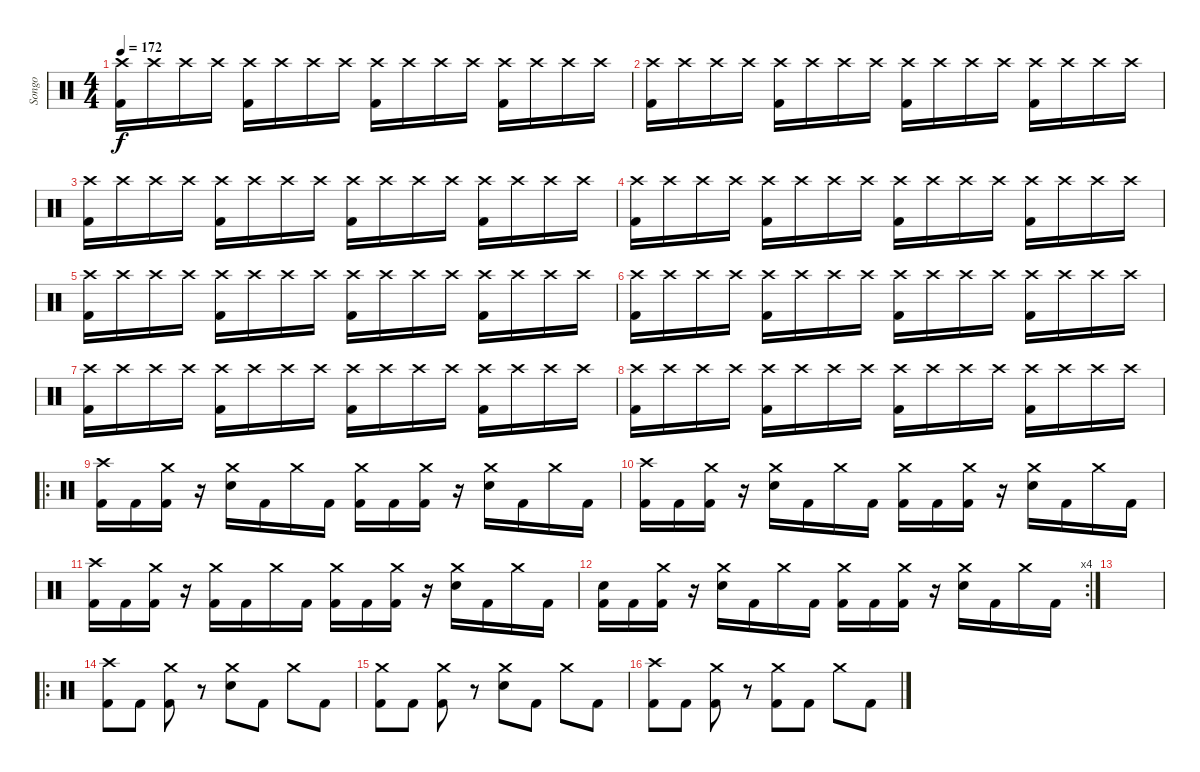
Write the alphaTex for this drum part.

\track ("Songo" "Songo") {instrument percussion}
\staff {score}
\articulation defaults
\ts (4 4)
\tempo 172
\clef neutral
\ks c
("Crash high (hit)" "Kick (hit) 2").16{dy f} "Crash high (hit)".16 "Crash high (hit)".16 "Crash high (hit)".16 ("Crash high (hit)" "Kick (hit) 2").16 "Crash high (hit)".16 "Crash high (hit)".16 "Crash high (hit)".16 ("Crash high (hit)" "Kick (hit) 2").16 "Crash high (hit)".16 "Crash high (hit)".16 "Crash high (hit)".16 ("Crash high (hit)" "Kick (hit) 2").16 "Crash high (hit)".16 "Crash high (hit)".16 "Crash high (hit)".16 |
("Crash high (hit)" "Kick (hit) 2").16 "Crash high (hit)".16 "Crash high (hit)".16 "Crash high (hit)".16 ("Crash high (hit)" "Kick (hit) 2").16 "Crash high (hit)".16 "Crash high (hit)".16 "Crash high (hit)".16 ("Crash high (hit)" "Kick (hit) 2").16 "Crash high (hit)".16 "Crash high (hit)".16 "Crash high (hit)".16 ("Crash high (hit)" "Kick (hit) 2").16 "Crash high (hit)".16 "Crash high (hit)".16 "Crash high (hit)".16 |
("Crash high (hit)" "Kick (hit) 2").16 "Crash high (hit)".16 "Crash high (hit)".16 "Crash high (hit)".16 ("Crash high (hit)" "Kick (hit) 2").16 "Crash high (hit)".16 "Crash high (hit)".16 "Crash high (hit)".16 ("Crash high (hit)" "Kick (hit) 2").16 "Crash high (hit)".16 "Crash high (hit)".16 "Crash high (hit)".16 ("Crash high (hit)" "Kick (hit) 2").16 "Crash high (hit)".16 "Crash high (hit)".16 "Crash high (hit)".16 |
("Crash high (hit)" "Kick (hit) 2").16 "Crash high (hit)".16 "Crash high (hit)".16 "Crash high (hit)".16 ("Crash high (hit)" "Kick (hit) 2").16 "Crash high (hit)".16 "Crash high (hit)".16 "Crash high (hit)".16 ("Crash high (hit)" "Kick (hit) 2").16 "Crash high (hit)".16 "Crash high (hit)".16 "Crash high (hit)".16 ("Crash high (hit)" "Kick (hit) 2").16 "Crash high (hit)".16 "Crash high (hit)".16 "Crash high (hit)".16 |
("Crash high (hit)" "Kick (hit) 2").16 "Crash high (hit)".16 "Crash high (hit)".16 "Crash high (hit)".16 ("Crash high (hit)" "Kick (hit) 2").16 "Crash high (hit)".16 "Crash high (hit)".16 "Crash high (hit)".16 ("Crash high (hit)" "Kick (hit) 2").16 "Crash high (hit)".16 "Crash high (hit)".16 "Crash high (hit)".16 ("Crash high (hit)" "Kick (hit) 2").16 "Crash high (hit)".16 "Crash high (hit)".16 "Crash high (hit)".16 |
("Crash high (hit)" "Kick (hit) 2").16 "Crash high (hit)".16 "Crash high (hit)".16 "Crash high (hit)".16 ("Crash high (hit)" "Kick (hit) 2").16 "Crash high (hit)".16 "Crash high (hit)".16 "Crash high (hit)".16 ("Crash high (hit)" "Kick (hit) 2").16 "Crash high (hit)".16 "Crash high (hit)".16 "Crash high (hit)".16 ("Crash high (hit)" "Kick (hit) 2").16 "Crash high (hit)".16 "Crash high (hit)".16 "Crash high (hit)".16 |
("Crash high (hit)" "Kick (hit) 2").16 "Crash high (hit)".16 "Crash high (hit)".16 "Crash high (hit)".16 ("Crash high (hit)" "Kick (hit) 2").16 "Crash high (hit)".16 "Crash high (hit)".16 "Crash high (hit)".16 ("Crash high (hit)" "Kick (hit) 2").16 "Crash high (hit)".16 "Crash high (hit)".16 "Crash high (hit)".16 ("Crash high (hit)" "Kick (hit) 2").16 "Crash high (hit)".16 "Crash high (hit)".16 "Crash high (hit)".16 |
("Crash high (hit)" "Kick (hit) 2").16 "Crash high (hit)".16 "Crash high (hit)".16 "Crash high (hit)".16 ("Crash high (hit)" "Kick (hit) 2").16 "Crash high (hit)".16 "Crash high (hit)".16 "Crash high (hit)".16 ("Crash high (hit)" "Kick (hit) 2").16 "Crash high (hit)".16 "Crash high (hit)".16 "Crash high (hit)".16 ("Crash high (hit)" "Kick (hit) 2").16 "Crash high (hit)".16 "Crash high (hit)".16 "Crash high (hit)".16 |
\ro
("Kick (hit) 2" "Crash high (hit)").16 "Kick (hit) 2".16 ("Kick (hit) 2" "Crash medium (hit)").16 r.16 ("Electric Snare (hit)" "Crash medium (hit)").16 "Kick (hit) 2".16 "Crash medium (hit)".16 "Kick (hit) 2".16 ("Kick (hit) 2" "Crash medium (hit)").16 "Kick (hit) 2".16 ("Kick (hit) 2" "Crash medium (hit)").16 r.16 ("Electric Snare (hit)" "Crash medium (hit)").16 "Kick (hit) 2".16 "Crash medium (hit)".16 "Kick (hit) 2".16 |
("Kick (hit) 2" "Crash high (hit)").16 "Kick (hit) 2".16 ("Kick (hit) 2" "Crash medium (hit)").16 r.16 ("Electric Snare (hit)" "Crash medium (hit)").16 "Kick (hit) 2".16 "Crash medium (hit)".16 "Kick (hit) 2".16 ("Kick (hit) 2" "Crash medium (hit)").16 "Kick (hit) 2".16 ("Kick (hit) 2" "Crash medium (hit)").16 r.16 ("Electric Snare (hit)" "Crash medium (hit)").16 "Kick (hit) 2".16 "Crash medium (hit)".16 "Kick (hit) 2".16 |
("Kick (hit) 2" "Crash high (hit)").16 "Kick (hit) 2".16 ("Kick (hit) 2" "Crash medium (hit)").16 r.16 ("Kick (hit) 2" "Crash medium (hit)").16 "Kick (hit) 2".16 "Crash medium (hit)".16 "Kick (hit) 2".16 ("Kick (hit) 2" "Crash medium (hit)").16 "Kick (hit) 2".16 ("Kick (hit) 2" "Crash medium (hit)").16 r.16 ("Electric Snare (hit)" "Crash medium (hit)").16 "Kick (hit) 2".16 "Crash medium (hit)".16 "Kick (hit) 2".16 |
\rc 4
("Kick (hit) 2" "Electric Snare (hit)").16 "Kick (hit) 2".16 ("Kick (hit) 2" "Crash medium (hit)").16 r.16 ("Electric Snare (hit)" "Crash medium (hit)").16 "Kick (hit) 2".16 "Crash medium (hit)".16 "Kick (hit) 2".16 ("Kick (hit) 2" "Crash medium (hit)").16 "Kick (hit) 2".16 ("Kick (hit) 2" "Crash medium (hit)").16 r.16 ("Electric Snare (hit)" "Crash medium (hit)").16 "Kick (hit) 2".16 "Crash medium (hit)".16 "Kick (hit) 2".16 |
|
\ro
("Kick (hit) 2" "Crash high (hit)").8 "Kick (hit) 2".8 ("Kick (hit) 2" "Crash medium (hit)").8 r.8 ("Crash medium (hit)" "Electric Snare (hit)").8 "Kick (hit) 2".8 "Crash medium (hit)".8 "Kick (hit) 2".8 |
("Kick (hit) 2" "Crash medium (hit)").8 "Kick (hit) 2".8 ("Kick (hit) 2" "Crash medium (hit)").8 r.8 ("Crash medium (hit)" "Electric Snare (hit)").8 "Kick (hit) 2".8 "Crash medium (hit)".8 "Kick (hit) 2".8 |
("Kick (hit) 2" "Crash high (hit)").8 "Kick (hit) 2".8 ("Kick (hit) 2" "Crash medium (hit)").8 r.8 ("Kick (hit) 2" "Crash medium (hit)").8 "Kick (hit) 2".8 "Crash medium (hit)".8 "Kick (hit) 2".8
